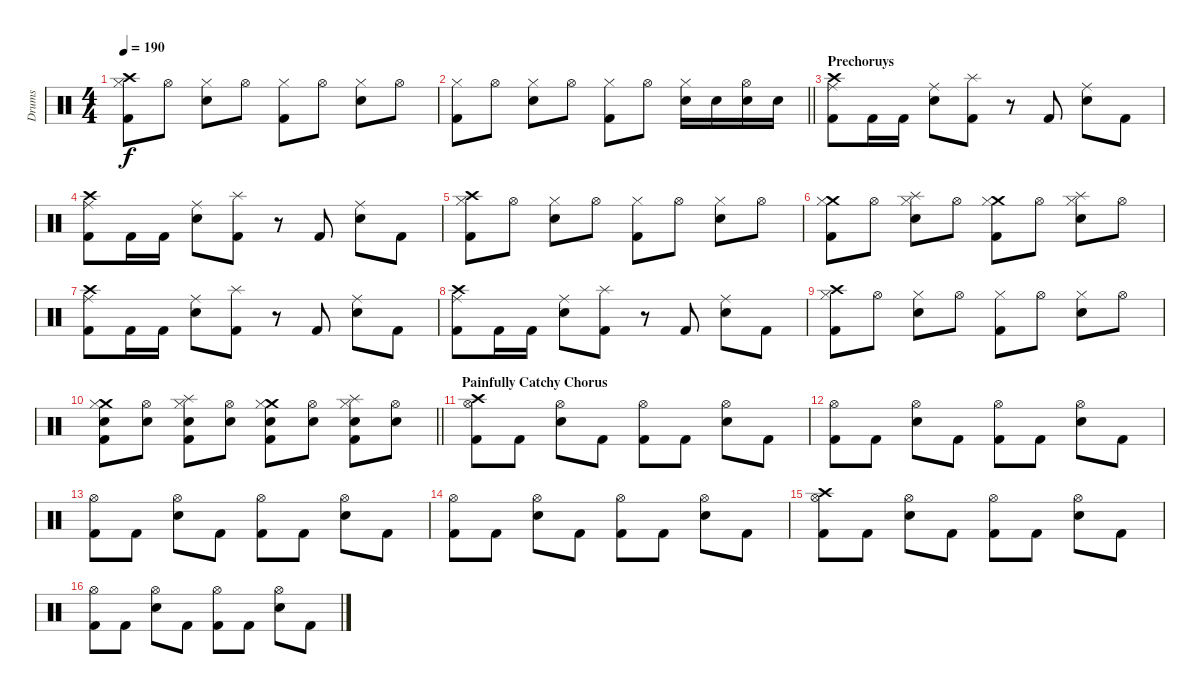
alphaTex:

\track ("Drums" "Drums") {instrument percussion}
\staff {score}
\articulation defaults
\ts (4 4)
\tempo 190
\clef neutral
\ks c
("Crash high (hit)" "Hi-Hat (closed)" "Kick (hit) 2").8{dy f} "Hi-Hat (open)".8 ("Hi-Hat (closed)" "Snare (hit) 2").8 "Hi-Hat (open)".8 ("Hi-Hat (closed)" "Kick (hit) 2").8 "Hi-Hat (open)".8 ("Hi-Hat (closed)" "Snare (hit) 2").8 "Hi-Hat (open)".8 |
\barLineRight lightlight
("Hi-Hat (closed)" "Kick (hit) 2").8 "Hi-Hat (open)".8 ("Hi-Hat (closed)" "Snare (hit) 2").8 "Hi-Hat (open)".8 ("Hi-Hat (closed)" "Kick (hit) 2").8 "Hi-Hat (open)".8 ("Hi-Hat (closed)" "Snare (hit) 2").16 "Snare (hit) 2".16 ("Hi-Hat (open)" "Snare (hit) 2").16 "Snare (hit) 2".16 |
\section ("" "Prechoruys")
("Crash high (hit)" "Ride (middle)" "Kick (hit) 2").8 "Kick (hit) 2".16 "Kick (hit) 2".16 ("Ride (middle)" "Snare (hit) 2").8 ("Splash (hit)" "Kick (hit) 2").8 r.8 "Kick (hit) 2".8 ("Ride (middle)" "Snare (hit) 2").8 "Kick (hit) 2".8 |
("Crash high (hit)" "Ride (middle)" "Kick (hit) 2").8 "Kick (hit) 2".16 "Kick (hit) 2".16 ("Ride (middle)" "Snare (hit) 2").8 ("Splash (hit)" "Kick (hit) 2").8 r.8 "Kick (hit) 2".8 ("Ride (middle)" "Snare (hit) 2").8 "Kick (hit) 2".8 |
("Crash high (hit)" "Hi-Hat (closed)" "Kick (hit) 2").8 "Hi-Hat (open)".8 ("Hi-Hat (closed)" "Snare (hit) 2").8 "Hi-Hat (open)".8 ("Hi-Hat (closed)" "Kick (hit) 2").8 "Hi-Hat (open)".8 ("Hi-Hat (closed)" "Snare (hit) 2").8 "Hi-Hat (open)".8 |
("Crash medium (hit)" "Hi-Hat (closed)" "Kick (hit) 2").8 "Hi-Hat (open)".8 ("Splash (hit)" "Hi-Hat (closed)" "Snare (hit) 2").8 "Hi-Hat (open)".8 ("Crash medium (hit)" "Hi-Hat (closed)" "Kick (hit) 2").8 "Hi-Hat (open)".8 ("Splash (hit)" "Hi-Hat (closed)" "Snare (hit) 2").8 "Hi-Hat (open)".8 |
("Crash high (hit)" "Ride (middle)" "Kick (hit) 2").8 "Kick (hit) 2".16 "Kick (hit) 2".16 ("Ride (middle)" "Snare (hit) 2").8 ("Splash (hit)" "Kick (hit) 2").8 r.8 "Kick (hit) 2".8 ("Ride (middle)" "Snare (hit) 2").8 "Kick (hit) 2".8 |
("Crash high (hit)" "Ride (middle)" "Kick (hit) 2").8 "Kick (hit) 2".16 "Kick (hit) 2".16 ("Ride (middle)" "Snare (hit) 2").8 ("Splash (hit)" "Kick (hit) 2").8 r.8 "Kick (hit) 2".8 ("Ride (middle)" "Snare (hit) 2").8 "Kick (hit) 2".8 |
("Crash high (hit)" "Hi-Hat (closed)" "Kick (hit) 2").8 "Hi-Hat (open)".8 ("Hi-Hat (closed)" "Snare (hit) 2").8 "Hi-Hat (open)".8 ("Hi-Hat (closed)" "Kick (hit) 2").8 "Hi-Hat (open)".8 ("Hi-Hat (closed)" "Snare (hit) 2").8 "Hi-Hat (open)".8 |
\barLineRight lightlight
("Crash medium (hit)" "Hi-Hat (closed)" "Snare (hit) 2" "Kick (hit) 2").8 ("Hi-Hat (open)" "Snare (hit) 2").8 ("Splash (hit)" "Hi-Hat (closed)" "Snare (hit) 2" "Kick (hit) 2").8 ("Hi-Hat (open)" "Snare (hit) 2").8 ("Crash medium (hit)" "Hi-Hat (closed)" "Snare (hit) 2" "Kick (hit) 2").8 ("Hi-Hat (open)" "Snare (hit) 2").8 ("Splash (hit)" "Hi-Hat (closed)" "Snare (hit) 2" "Kick (hit) 2").8 ("Hi-Hat (open)" "Snare (hit) 2").8 |
\section ("" "Painfully Catchy Chorus")
("Crash high (hit)" "Hi-Hat (open)" "Kick (hit) 2").8 "Kick (hit) 2".8 ("Hi-Hat (open)" "Snare (hit) 2").8 "Kick (hit) 2".8 ("Hi-Hat (open)" "Kick (hit) 2").8 "Kick (hit) 2".8 ("Hi-Hat (open)" "Snare (hit) 2").8 "Kick (hit) 2".8 |
("Hi-Hat (open)" "Kick (hit) 2").8 "Kick (hit) 2".8 ("Hi-Hat (open)" "Snare (hit) 2").8 "Kick (hit) 2".8 ("Hi-Hat (open)" "Kick (hit) 2").8 "Kick (hit) 2".8 ("Hi-Hat (open)" "Snare (hit) 2").8 "Kick (hit) 2".8 |
("Hi-Hat (open)" "Kick (hit) 2").8 "Kick (hit) 2".8 ("Hi-Hat (open)" "Snare (hit) 2").8 "Kick (hit) 2".8 ("Hi-Hat (open)" "Kick (hit) 2").8 "Kick (hit) 2".8 ("Hi-Hat (open)" "Snare (hit) 2").8 "Kick (hit) 2".8 |
("Hi-Hat (open)" "Kick (hit) 2").8 "Kick (hit) 2".8 ("Hi-Hat (open)" "Snare (hit) 2").8 "Kick (hit) 2".8 ("Hi-Hat (open)" "Kick (hit) 2").8 "Kick (hit) 2".8 ("Hi-Hat (open)" "Snare (hit) 2").8 "Kick (hit) 2".8 |
("Crash high (hit)" "Hi-Hat (open)" "Kick (hit) 2").8 "Kick (hit) 2".8 ("Hi-Hat (open)" "Snare (hit) 2").8 "Kick (hit) 2".8 ("Hi-Hat (open)" "Kick (hit) 2").8 "Kick (hit) 2".8 ("Hi-Hat (open)" "Snare (hit) 2").8 "Kick (hit) 2".8 |
("Hi-Hat (open)" "Kick (hit) 2").8 "Kick (hit) 2".8 ("Hi-Hat (open)" "Snare (hit) 2").8 "Kick (hit) 2".8 ("Hi-Hat (open)" "Kick (hit) 2").8 "Kick (hit) 2".8 ("Hi-Hat (open)" "Snare (hit) 2").8 "Kick (hit) 2".8
